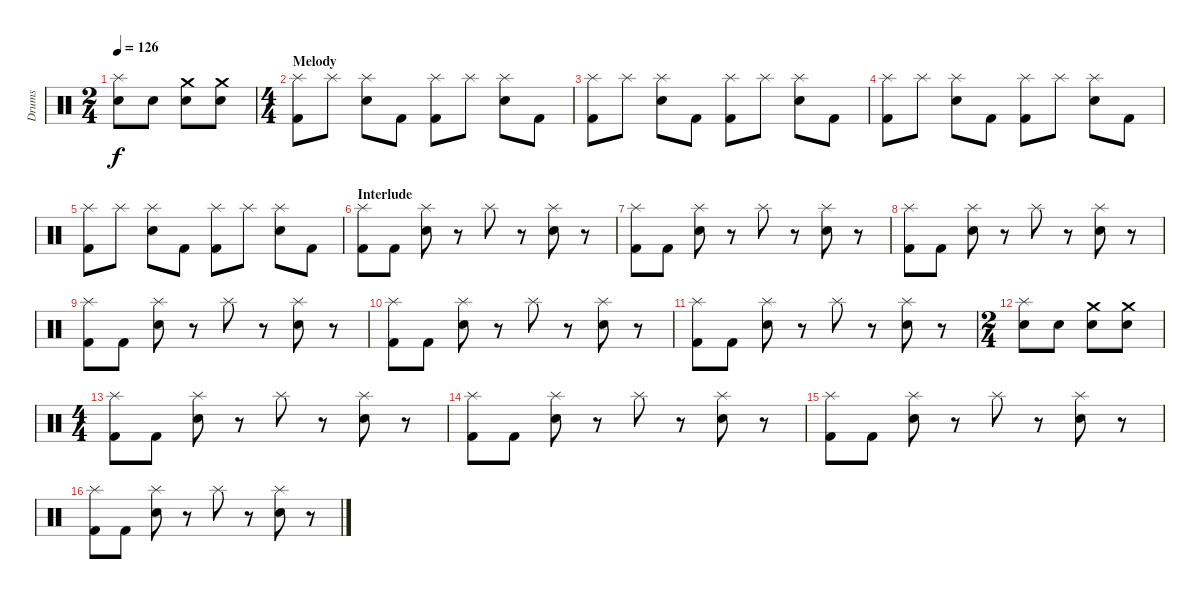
\track ("Drums" "Drums") {instrument percussion}
\staff {score}
\articulation defaults
\ts (2 4)
\tempo 126
\clef neutral
\ks c
("Splash (hit)" "Snare (hit) 2").8{dy f} "Snare (hit) 2".8 ("Crash medium (hit)" "Snare (hit) 2").8 ("Crash medium (hit)" "Snare (hit) 2").8 |
\ts (4 4)
\section ("" "Melody")
("Splash (hit)" "Kick (hit) 2").8 "Splash (hit)".8 ("Splash (hit)" "Snare (hit) 2").8 "Kick (hit) 2".8 ("Splash (hit)" "Kick (hit) 2").8 "Splash (hit)".8 ("Splash (hit)" "Snare (hit) 2").8 "Kick (hit) 2".8 |
("Splash (hit)" "Kick (hit) 2").8 "Splash (hit)".8 ("Splash (hit)" "Snare (hit) 2").8 "Kick (hit) 2".8 ("Splash (hit)" "Kick (hit) 2").8 "Splash (hit)".8 ("Splash (hit)" "Snare (hit) 2").8 "Kick (hit) 2".8 |
("Splash (hit)" "Kick (hit) 2").8 "Splash (hit)".8 ("Splash (hit)" "Snare (hit) 2").8 "Kick (hit) 2".8 ("Splash (hit)" "Kick (hit) 2").8 "Splash (hit)".8 ("Splash (hit)" "Snare (hit) 2").8 "Kick (hit) 2".8 |
("Splash (hit)" "Kick (hit) 2").8 "Splash (hit)".8 ("Splash (hit)" "Snare (hit) 2").8 "Kick (hit) 2".8 ("Splash (hit)" "Kick (hit) 2").8 "Splash (hit)".8 ("Splash (hit)" "Snare (hit) 2").8 "Kick (hit) 2".8 |
\section ("" "Interlude")
("Splash (hit)" "Kick (hit) 2").8 "Kick (hit) 2".8 ("Splash (hit)" "Snare (hit) 2").8 r.8 "Splash (hit)".8 r.8 ("Splash (hit)" "Snare (hit) 2").8 r.8 |
("Splash (hit)" "Kick (hit) 2").8 "Kick (hit) 2".8 ("Splash (hit)" "Snare (hit) 2").8 r.8 "Splash (hit)".8 r.8 ("Splash (hit)" "Snare (hit) 2").8 r.8 |
("Splash (hit)" "Kick (hit) 2").8 "Kick (hit) 2".8 ("Splash (hit)" "Snare (hit) 2").8 r.8 "Splash (hit)".8 r.8 ("Splash (hit)" "Snare (hit) 2").8 r.8 |
("Splash (hit)" "Kick (hit) 2").8 "Kick (hit) 2".8 ("Splash (hit)" "Snare (hit) 2").8 r.8 "Splash (hit)".8 r.8 ("Splash (hit)" "Snare (hit) 2").8 r.8 |
("Splash (hit)" "Kick (hit) 2").8 "Kick (hit) 2".8 ("Splash (hit)" "Snare (hit) 2").8 r.8 "Splash (hit)".8 r.8 ("Splash (hit)" "Snare (hit) 2").8 r.8 |
("Splash (hit)" "Kick (hit) 2").8 "Kick (hit) 2".8 ("Splash (hit)" "Snare (hit) 2").8 r.8 "Splash (hit)".8 r.8 ("Splash (hit)" "Snare (hit) 2").8 r.8 |
\ts (2 4)
("Splash (hit)" "Snare (hit) 2").8 "Snare (hit) 2".8 ("Crash medium (hit)" "Snare (hit) 2").8 ("Crash medium (hit)" "Snare (hit) 2").8 |
\ts (4 4)
("Splash (hit)" "Kick (hit) 2").8 "Kick (hit) 2".8 ("Splash (hit)" "Snare (hit) 2").8 r.8 "Splash (hit)".8 r.8 ("Splash (hit)" "Snare (hit) 2").8 r.8 |
("Splash (hit)" "Kick (hit) 2").8 "Kick (hit) 2".8 ("Splash (hit)" "Snare (hit) 2").8 r.8 "Splash (hit)".8 r.8 ("Splash (hit)" "Snare (hit) 2").8 r.8 |
("Splash (hit)" "Kick (hit) 2").8 "Kick (hit) 2".8 ("Splash (hit)" "Snare (hit) 2").8 r.8 "Splash (hit)".8 r.8 ("Splash (hit)" "Snare (hit) 2").8 r.8 |
("Splash (hit)" "Kick (hit) 2").8 "Kick (hit) 2".8 ("Splash (hit)" "Snare (hit) 2").8 r.8 "Splash (hit)".8 r.8 ("Splash (hit)" "Snare (hit) 2").8 r.8
